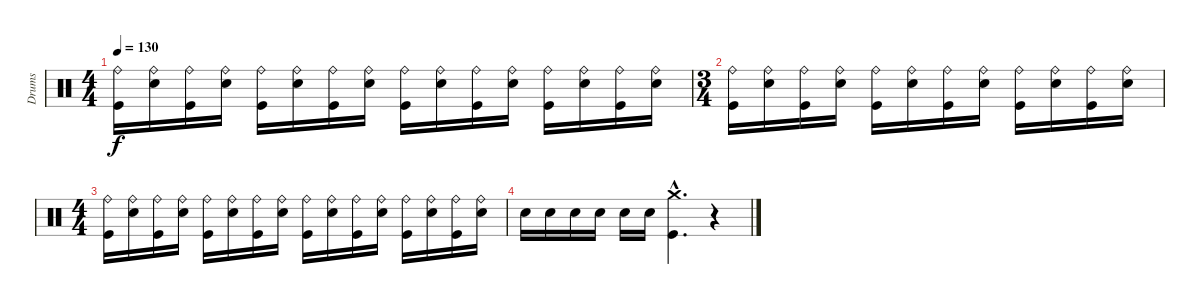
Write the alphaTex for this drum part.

\track ("Drums" "Drums") {instrument percussion}
\staff {score}
\articulation defaults
\ts (4 4)
\tempo 130
\clef neutral
\ks c
("Kick (hit)" "Ride (bell)").16{dy f} ("Electric Snare (hit)" "Ride (bell)").16 ("Kick (hit)" "Ride (bell)").16 ("Electric Snare (hit)" "Ride (bell)").16 ("Kick (hit)" "Ride (bell)").16 ("Electric Snare (hit)" "Ride (bell)").16 ("Kick (hit)" "Ride (bell)").16 ("Electric Snare (hit)" "Ride (bell)").16 ("Kick (hit)" "Ride (bell)").16 ("Electric Snare (hit)" "Ride (bell)").16 ("Kick (hit)" "Ride (bell)").16 ("Electric Snare (hit)" "Ride (bell)").16 ("Kick (hit)" "Ride (bell)").16 ("Electric Snare (hit)" "Ride (bell)").16 ("Kick (hit)" "Ride (bell)").16 ("Electric Snare (hit)" "Ride (bell)").16 |
\ts (3 4)
("Kick (hit)" "Ride (bell)").16 ("Electric Snare (hit)" "Ride (bell)").16 ("Kick (hit)" "Ride (bell)").16 ("Electric Snare (hit)" "Ride (bell)").16 ("Kick (hit)" "Ride (bell)").16 ("Electric Snare (hit)" "Ride (bell)").16 ("Kick (hit)" "Ride (bell)").16 ("Electric Snare (hit)" "Ride (bell)").16 ("Kick (hit)" "Ride (bell)").16 ("Electric Snare (hit)" "Ride (bell)").16 ("Kick (hit)" "Ride (bell)").16 ("Electric Snare (hit)" "Ride (bell)").16 |
\ts (4 4)
("Kick (hit)" "Ride (bell)").16 ("Electric Snare (hit)" "Ride (bell)").16 ("Kick (hit)" "Ride (bell)").16 ("Electric Snare (hit)" "Ride (bell)").16 ("Kick (hit)" "Ride (bell)").16 ("Electric Snare (hit)" "Ride (bell)").16 ("Kick (hit)" "Ride (bell)").16 ("Electric Snare (hit)" "Ride (bell)").16 ("Kick (hit)" "Ride (bell)").16 ("Electric Snare (hit)" "Ride (bell)").16 ("Kick (hit)" "Ride (bell)").16 ("Electric Snare (hit)" "Ride (bell)").16 ("Kick (hit)" "Ride (bell)").16 ("Electric Snare (hit)" "Ride (bell)").16 ("Kick (hit)" "Ride (bell)").16 ("Electric Snare (hit)" "Ride (bell)").16 |
"Electric Snare (hit)".16 "Electric Snare (hit)".16 "Electric Snare (hit)".16 "Electric Snare (hit)".16 "Electric Snare (hit)".16 "Electric Snare (hit)".16 ("Kick (hit)"{hac} "Crash medium (hit)"{hac}).4{d} r.4
